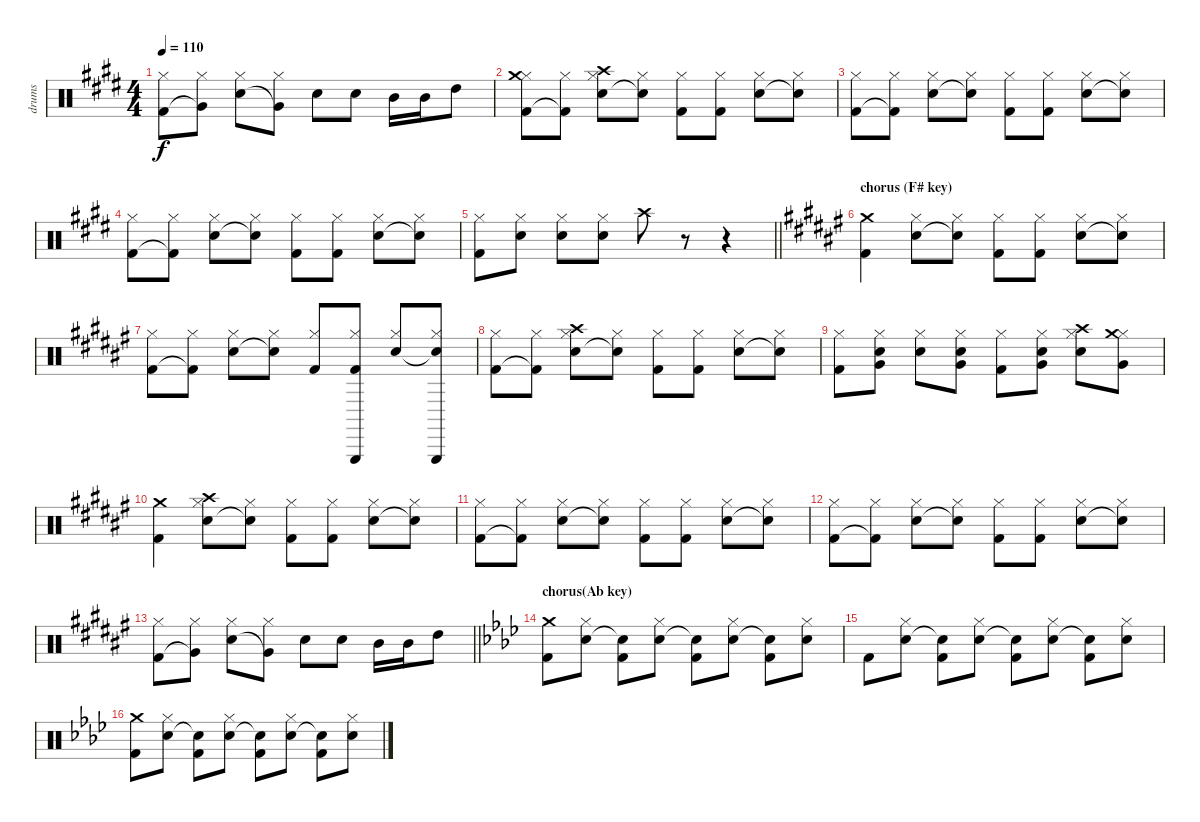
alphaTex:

\track ("drums" "drums") {instrument percussion}
\staff {score}
\articulation defaults
\ts (4 4)
\tempo 110
\clef neutral
\ks e
("Kick (hit) 2" "Hi-Hat (closed)").8{dy f} ("Very Low Tom (hit)"{t} "Hi-Hat (closed)").8 ("Electric Snare (hit)" "Hi-Hat (closed)").8 ("Very Low Tom (hit)"{t} "Hi-Hat (closed)").8 "Electric Snare (hit)".8 "Electric Snare (hit)".8 "Mid Tom (hit)".16 "Mid Tom (hit)".16 "High Tom (hit)".8 |
("Kick (hit) 2" "Hi-Hat (closed)" "Crash medium (hit)").8 ("Kick (hit) 2"{t} "Hi-Hat (closed)").8 ("Electric Snare (hit)" "Hi-Hat (closed)" "Crash high (hit)").8 ("Snare (hit)"{t} "Hi-Hat (closed)").8 ("Kick (hit) 2" "Hi-Hat (closed)").8 ("Kick (hit) 2" "Hi-Hat (closed)").8 ("Electric Snare (hit)" "Hi-Hat (closed)").8 ("Snare (hit)"{t} "Hi-Hat (closed)").8 |
("Kick (hit) 2" "Hi-Hat (closed)").8 ("Kick (hit) 2"{t} "Hi-Hat (closed)").8 ("Electric Snare (hit)" "Hi-Hat (closed)").8 ("Snare (hit)"{t} "Hi-Hat (closed)").8 ("Kick (hit) 2" "Hi-Hat (closed)").8 ("Kick (hit) 2" "Hi-Hat (closed)").8 ("Electric Snare (hit)" "Hi-Hat (closed)").8 ("Snare (hit)"{t} "Hi-Hat (closed)").8 |
("Kick (hit) 2" "Hi-Hat (closed)").8 ("Kick (hit) 2"{t} "Hi-Hat (closed)").8 ("Electric Snare (hit)" "Hi-Hat (closed)").8 ("Snare (hit)"{t} "Hi-Hat (closed)").8 ("Kick (hit) 2" "Hi-Hat (closed)").8 ("Kick (hit) 2" "Hi-Hat (closed)").8 ("Electric Snare (hit)" "Hi-Hat (closed)").8 ("Snare (hit)"{t} "Hi-Hat (closed)").8 |
\barLineRight lightlight
("Kick (hit) 2" "Hi-Hat (closed)").8 ("Electric Snare (hit)" "Hi-Hat (closed)").8 ("Electric Snare (hit)" "Hi-Hat (closed)").8 ("Electric Snare (hit)" "Hi-Hat (closed)").8 "Crash high (hit)".8 r.8 r.4 |
\section ("" "chorus (F# key)")
\ks f#
("Kick (hit) 2" "Crash medium (hit)").4 ("Electric Snare (hit)" "Hi-Hat (closed)").8 ("Snare (hit)"{t} "Hi-Hat (closed)").8 ("Kick (hit) 2" "Hi-Hat (closed)").8 ("Kick (hit) 2" "Hi-Hat (closed)").8 ("Electric Snare (hit)" "Hi-Hat (closed)").8 ("Snare (hit)"{t} "Hi-Hat (closed)").8 |
("Kick (hit) 2" "Hi-Hat (closed)").8 ("Kick (hit) 2"{t} "Hi-Hat (closed)").8 ("Electric Snare (hit)" "Hi-Hat (closed)").8 ("Snare (hit)"{t} "Hi-Hat (closed)").8 ("Kick (hit) 2" "Hi-Hat (closed)").8 ("Kick (hit) 2" "Hi-Hat (closed)" "Triangle (hit)").8 ("Electric Snare (hit)" "Hi-Hat (closed)").8 ("Snare (hit)"{t} "Hi-Hat (closed)" "Triangle (hit)").8 |
("Kick (hit) 2" "Hi-Hat (closed)").8 ("Kick (hit) 2"{t} "Hi-Hat (closed)").8 ("Electric Snare (hit)" "Hi-Hat (closed)" "Crash high (hit)").8 ("Snare (hit)"{t} "Hi-Hat (closed)").8 ("Kick (hit) 2" "Hi-Hat (closed)").8 ("Kick (hit) 2" "Hi-Hat (closed)").8 ("Electric Snare (hit)" "Hi-Hat (closed)").8 ("Snare (hit)"{t} "Hi-Hat (closed)").8 |
("Kick (hit) 2" "Hi-Hat (closed)").8 ("Very Low Tom (hit)" "Hi-Hat (closed)" "Electric Snare (hit)").8 ("Electric Snare (hit)" "Hi-Hat (closed)").8 ("Very Low Tom (hit)" "Hi-Hat (closed)" "Electric Snare (hit)").8 ("Kick (hit) 2" "Hi-Hat (closed)").8 ("Very Low Tom (hit)" "Hi-Hat (closed)" "Electric Snare (hit)").8 ("Electric Snare (hit)" "Hi-Hat (closed)" "Crash high (hit)").8 ("Very Low Tom (hit)" "Hi-Hat (closed)" "Crash medium (hit)").8 |
("Kick (hit) 2" "Crash medium (hit)").4 ("Electric Snare (hit)" "Hi-Hat (closed)" "Crash high (hit)").8 ("Snare (hit)"{t} "Hi-Hat (closed)").8 ("Kick (hit) 2" "Hi-Hat (closed)").8 ("Kick (hit) 2" "Hi-Hat (closed)").8 ("Electric Snare (hit)" "Hi-Hat (closed)").8 ("Snare (hit)"{t} "Hi-Hat (closed)").8 |
("Kick (hit) 2" "Hi-Hat (closed)").8 ("Kick (hit) 2"{t} "Hi-Hat (closed)").8 ("Electric Snare (hit)" "Hi-Hat (closed)").8 ("Snare (hit)"{t} "Hi-Hat (closed)").8 ("Kick (hit) 2" "Hi-Hat (closed)").8 ("Kick (hit) 2" "Hi-Hat (closed)").8 ("Electric Snare (hit)" "Hi-Hat (closed)").8 ("Snare (hit)"{t} "Hi-Hat (closed)").8 |
("Kick (hit) 2" "Hi-Hat (closed)").8 ("Kick (hit) 2"{t} "Hi-Hat (closed)").8 ("Electric Snare (hit)" "Hi-Hat (closed)").8 ("Snare (hit)"{t} "Hi-Hat (closed)").8 ("Kick (hit) 2" "Hi-Hat (closed)").8 ("Kick (hit) 2" "Hi-Hat (closed)").8 ("Electric Snare (hit)" "Hi-Hat (closed)").8 ("Snare (hit)"{t} "Hi-Hat (closed)").8 |
\barLineRight lightlight
("Kick (hit) 2" "Hi-Hat (closed)").8 ("Very Low Tom (hit)"{t} "Hi-Hat (closed)").8 ("Electric Snare (hit)" "Hi-Hat (closed)").8 ("Very Low Tom (hit)"{t} "Hi-Hat (closed)").8 "Electric Snare (hit)".8 "Electric Snare (hit)".8 "Mid Tom (hit)".16 "Mid Tom (hit)".16 "High Tom (hit)".8 |
\section ("" "chorus(Ab key)")
\ks ab
("Kick (hit) 2" "Crash medium (hit)").8 ("Electric Snare (hit)" "Hi-Hat (closed)").8 ("Electric Snare (hit)"{t} "Kick (hit) 2").8 ("Electric Snare (hit)" "Hi-Hat (closed)").8 ("Electric Snare (hit)"{t} "Kick (hit) 2").8 ("Electric Snare (hit)" "Hi-Hat (closed)").8 ("Electric Snare (hit)"{t} "Kick (hit) 2").8 ("Electric Snare (hit)" "Hi-Hat (closed)").8 |
"Kick (hit) 2".8 ("Electric Snare (hit)" "Hi-Hat (closed)").8 ("Electric Snare (hit)"{t} "Kick (hit) 2").8 ("Electric Snare (hit)" "Hi-Hat (closed)").8 ("Electric Snare (hit)"{t} "Kick (hit) 2").8 ("Electric Snare (hit)" "Hi-Hat (closed)").8 ("Electric Snare (hit)"{t} "Kick (hit) 2").8 ("Electric Snare (hit)" "Hi-Hat (closed)").8 |
("Kick (hit) 2" "Crash medium (hit)").8 ("Electric Snare (hit)" "Hi-Hat (closed)").8 ("Electric Snare (hit)"{t} "Kick (hit) 2").8 ("Electric Snare (hit)" "Hi-Hat (closed)").8 ("Electric Snare (hit)"{t} "Kick (hit) 2").8 ("Electric Snare (hit)" "Hi-Hat (closed)").8 ("Electric Snare (hit)"{t} "Kick (hit) 2").8 ("Electric Snare (hit)" "Hi-Hat (closed)").8
